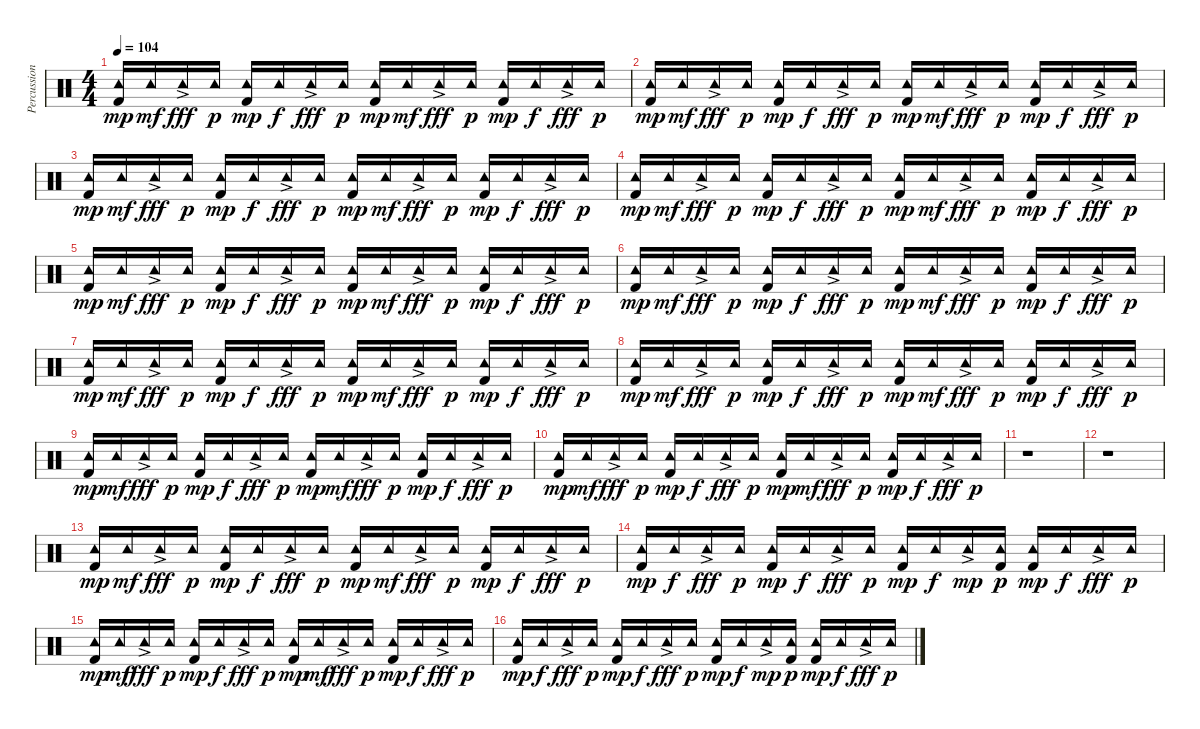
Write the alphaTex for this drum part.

\track ("Percussion" "Percussion") {instrument percussion}
\staff {score}
\articulation defaults
\ts (4 4)
\tempo 104
\clef neutral
\ks c
("Kick (hit) 2" "Tambourine (hit)").16{dy mp} "Tambourine (hit)".16{dy mf} "Tambourine (hit)"{ac}.16{dy fff} "Tambourine (hit)".16{dy p} ("Kick (hit) 2" "Tambourine (hit)").16{dy mp} "Tambourine (hit)".16{dy f} "Tambourine (hit)"{ac}.16{dy fff} "Tambourine (hit)".16{dy p} ("Kick (hit) 2" "Tambourine (hit)").16{dy mp} "Tambourine (hit)".16{dy mf} "Tambourine (hit)"{ac}.16{dy fff} "Tambourine (hit)".16{dy p} ("Kick (hit) 2" "Tambourine (hit)").16{dy mp} "Tambourine (hit)".16{dy f} "Tambourine (hit)"{ac}.16{dy fff} "Tambourine (hit)".16{dy p} |
("Kick (hit) 2" "Tambourine (hit)").16{dy mp} "Tambourine (hit)".16{dy mf} "Tambourine (hit)"{ac}.16{dy fff} "Tambourine (hit)".16{dy p} ("Kick (hit) 2" "Tambourine (hit)").16{dy mp} "Tambourine (hit)".16{dy f} "Tambourine (hit)"{ac}.16{dy fff} "Tambourine (hit)".16{dy p} ("Kick (hit) 2" "Tambourine (hit)").16{dy mp} "Tambourine (hit)".16{dy mf} "Tambourine (hit)"{ac}.16{dy fff} "Tambourine (hit)".16{dy p} ("Kick (hit) 2" "Tambourine (hit)").16{dy mp} "Tambourine (hit)".16{dy f} "Tambourine (hit)"{ac}.16{dy fff} "Tambourine (hit)".16{dy p} |
("Kick (hit) 2" "Tambourine (hit)").16{dy mp} "Tambourine (hit)".16{dy mf} "Tambourine (hit)"{ac}.16{dy fff} "Tambourine (hit)".16{dy p} ("Kick (hit) 2" "Tambourine (hit)").16{dy mp} "Tambourine (hit)".16{dy f} "Tambourine (hit)"{ac}.16{dy fff} "Tambourine (hit)".16{dy p} ("Kick (hit) 2" "Tambourine (hit)").16{dy mp} "Tambourine (hit)".16{dy mf} "Tambourine (hit)"{ac}.16{dy fff} "Tambourine (hit)".16{dy p} ("Kick (hit) 2" "Tambourine (hit)").16{dy mp} "Tambourine (hit)".16{dy f} "Tambourine (hit)"{ac}.16{dy fff} "Tambourine (hit)".16{dy p} |
("Kick (hit) 2" "Tambourine (hit)").16{dy mp} "Tambourine (hit)".16{dy mf} "Tambourine (hit)"{ac}.16{dy fff} "Tambourine (hit)".16{dy p} ("Kick (hit) 2" "Tambourine (hit)").16{dy mp} "Tambourine (hit)".16{dy f} "Tambourine (hit)"{ac}.16{dy fff} "Tambourine (hit)".16{dy p} ("Kick (hit) 2" "Tambourine (hit)").16{dy mp} "Tambourine (hit)".16{dy mf} "Tambourine (hit)"{ac}.16{dy fff} "Tambourine (hit)".16{dy p} ("Kick (hit) 2" "Tambourine (hit)").16{dy mp} "Tambourine (hit)".16{dy f} "Tambourine (hit)"{ac}.16{dy fff} "Tambourine (hit)".16{dy p} |
("Kick (hit) 2" "Tambourine (hit)").16{dy mp} "Tambourine (hit)".16{dy mf} "Tambourine (hit)"{ac}.16{dy fff} "Tambourine (hit)".16{dy p} ("Kick (hit) 2" "Tambourine (hit)").16{dy mp} "Tambourine (hit)".16{dy f} "Tambourine (hit)"{ac}.16{dy fff} "Tambourine (hit)".16{dy p} ("Kick (hit) 2" "Tambourine (hit)").16{dy mp} "Tambourine (hit)".16{dy mf} "Tambourine (hit)"{ac}.16{dy fff} "Tambourine (hit)".16{dy p} ("Kick (hit) 2" "Tambourine (hit)").16{dy mp} "Tambourine (hit)".16{dy f} "Tambourine (hit)"{ac}.16{dy fff} "Tambourine (hit)".16{dy p} |
("Kick (hit) 2" "Tambourine (hit)").16{dy mp} "Tambourine (hit)".16{dy mf} "Tambourine (hit)"{ac}.16{dy fff} "Tambourine (hit)".16{dy p} ("Kick (hit) 2" "Tambourine (hit)").16{dy mp} "Tambourine (hit)".16{dy f} "Tambourine (hit)"{ac}.16{dy fff} "Tambourine (hit)".16{dy p} ("Kick (hit) 2" "Tambourine (hit)").16{dy mp} "Tambourine (hit)".16{dy mf} "Tambourine (hit)"{ac}.16{dy fff} "Tambourine (hit)".16{dy p} ("Kick (hit) 2" "Tambourine (hit)").16{dy mp} "Tambourine (hit)".16{dy f} "Tambourine (hit)"{ac}.16{dy fff} "Tambourine (hit)".16{dy p} |
("Kick (hit) 2" "Tambourine (hit)").16{dy mp} "Tambourine (hit)".16{dy mf} "Tambourine (hit)"{ac}.16{dy fff} "Tambourine (hit)".16{dy p} ("Kick (hit) 2" "Tambourine (hit)").16{dy mp} "Tambourine (hit)".16{dy f} "Tambourine (hit)"{ac}.16{dy fff} "Tambourine (hit)".16{dy p} ("Kick (hit) 2" "Tambourine (hit)").16{dy mp} "Tambourine (hit)".16{dy mf} "Tambourine (hit)"{ac}.16{dy fff} "Tambourine (hit)".16{dy p} ("Kick (hit) 2" "Tambourine (hit)").16{dy mp} "Tambourine (hit)".16{dy f} "Tambourine (hit)"{ac}.16{dy fff} "Tambourine (hit)".16{dy p} |
("Kick (hit) 2" "Tambourine (hit)").16{dy mp} "Tambourine (hit)".16{dy mf} "Tambourine (hit)"{ac}.16{dy fff} "Tambourine (hit)".16{dy p} ("Kick (hit) 2" "Tambourine (hit)").16{dy mp} "Tambourine (hit)".16{dy f} "Tambourine (hit)"{ac}.16{dy fff} "Tambourine (hit)".16{dy p} ("Kick (hit) 2" "Tambourine (hit)").16{dy mp} "Tambourine (hit)".16{dy mf} "Tambourine (hit)"{ac}.16{dy fff} "Tambourine (hit)".16{dy p} ("Kick (hit) 2" "Tambourine (hit)").16{dy mp} "Tambourine (hit)".16{dy f} "Tambourine (hit)"{ac}.16{dy fff} "Tambourine (hit)".16{dy p} |
("Kick (hit) 2" "Tambourine (hit)").16{dy mp} "Tambourine (hit)".16{dy mf} "Tambourine (hit)"{ac}.16{dy fff} "Tambourine (hit)".16{dy p} ("Kick (hit) 2" "Tambourine (hit)").16{dy mp} "Tambourine (hit)".16{dy f} "Tambourine (hit)"{ac}.16{dy fff} "Tambourine (hit)".16{dy p} ("Kick (hit) 2" "Tambourine (hit)").16{dy mp} "Tambourine (hit)".16{dy mf} "Tambourine (hit)"{ac}.16{dy fff} "Tambourine (hit)".16{dy p} ("Kick (hit) 2" "Tambourine (hit)").16{dy mp} "Tambourine (hit)".16{dy f} "Tambourine (hit)"{ac}.16{dy fff} "Tambourine (hit)".16{dy p} |
("Kick (hit) 2" "Tambourine (hit)").16{dy mp} "Tambourine (hit)".16{dy mf} "Tambourine (hit)"{ac}.16{dy fff} "Tambourine (hit)".16{dy p} ("Kick (hit) 2" "Tambourine (hit)").16{dy mp} "Tambourine (hit)".16{dy f} "Tambourine (hit)"{ac}.16{dy fff} "Tambourine (hit)".16{dy p} ("Kick (hit) 2" "Tambourine (hit)").16{dy mp} "Tambourine (hit)".16{dy mf} "Tambourine (hit)"{ac}.16{dy fff} "Tambourine (hit)".16{dy p} ("Kick (hit) 2" "Tambourine (hit)").16{dy mp} "Tambourine (hit)".16{dy f} "Tambourine (hit)"{ac}.16{dy fff} "Tambourine (hit)".16{dy p} |
r.1 |
r.1 |
("Kick (hit) 2" "Tambourine (hit)").16{dy mp} "Tambourine (hit)".16{dy mf} "Tambourine (hit)"{ac}.16{dy fff} "Tambourine (hit)".16{dy p} ("Kick (hit) 2" "Tambourine (hit)").16{dy mp} "Tambourine (hit)".16{dy f} "Tambourine (hit)"{ac}.16{dy fff} "Tambourine (hit)".16{dy p} ("Kick (hit) 2" "Tambourine (hit)").16{dy mp} "Tambourine (hit)".16{dy mf} "Tambourine (hit)"{ac}.16{dy fff} "Tambourine (hit)".16{dy p} ("Kick (hit) 2" "Tambourine (hit)").16{dy mp} "Tambourine (hit)".16{dy f} "Tambourine (hit)"{ac}.16{dy fff} "Tambourine (hit)".16{dy p} |
("Kick (hit) 2" "Tambourine (hit)").16{dy mp} "Tambourine (hit)".16{dy f} "Tambourine (hit)"{ac}.16{dy fff} "Tambourine (hit)".16{dy p} ("Kick (hit) 2" "Tambourine (hit)").16{dy mp} "Tambourine (hit)".16{dy f} "Tambourine (hit)"{ac}.16{dy fff} "Tambourine (hit)".16{dy p} ("Kick (hit) 2" "Tambourine (hit)").16{dy mp} "Tambourine (hit)".16{dy f} "Tambourine (hit)"{ac}.16{dy mp} ("Kick (hit) 2" "Tambourine (hit)").16{dy p} ("Kick (hit) 2" "Tambourine (hit)").16{dy mp} "Tambourine (hit)".16{dy f} "Tambourine (hit)"{ac}.16{dy fff} "Tambourine (hit)".16{dy p} |
("Kick (hit) 2" "Tambourine (hit)").16{dy mp} "Tambourine (hit)".16{dy mf} "Tambourine (hit)"{ac}.16{dy fff} "Tambourine (hit)".16{dy p} ("Kick (hit) 2" "Tambourine (hit)").16{dy mp} "Tambourine (hit)".16{dy f} "Tambourine (hit)"{ac}.16{dy fff} "Tambourine (hit)".16{dy p} ("Kick (hit) 2" "Tambourine (hit)").16{dy mp} "Tambourine (hit)".16{dy mf} "Tambourine (hit)"{ac}.16{dy fff} "Tambourine (hit)".16{dy p} ("Kick (hit) 2" "Tambourine (hit)").16{dy mp} "Tambourine (hit)".16{dy f} "Tambourine (hit)"{ac}.16{dy fff} "Tambourine (hit)".16{dy p} |
("Kick (hit) 2" "Tambourine (hit)").16{dy mp} "Tambourine (hit)".16{dy f} "Tambourine (hit)"{ac}.16{dy fff} "Tambourine (hit)".16{dy p} ("Kick (hit) 2" "Tambourine (hit)").16{dy mp} "Tambourine (hit)".16{dy f} "Tambourine (hit)"{ac}.16{dy fff} "Tambourine (hit)".16{dy p} ("Kick (hit) 2" "Tambourine (hit)").16{dy mp} "Tambourine (hit)".16{dy f} "Tambourine (hit)"{ac}.16{dy mp} ("Kick (hit) 2" "Tambourine (hit)").16{dy p} ("Kick (hit) 2" "Tambourine (hit)").16{dy mp} "Tambourine (hit)".16{dy f} "Tambourine (hit)"{ac}.16{dy fff} "Tambourine (hit)".16{dy p}
